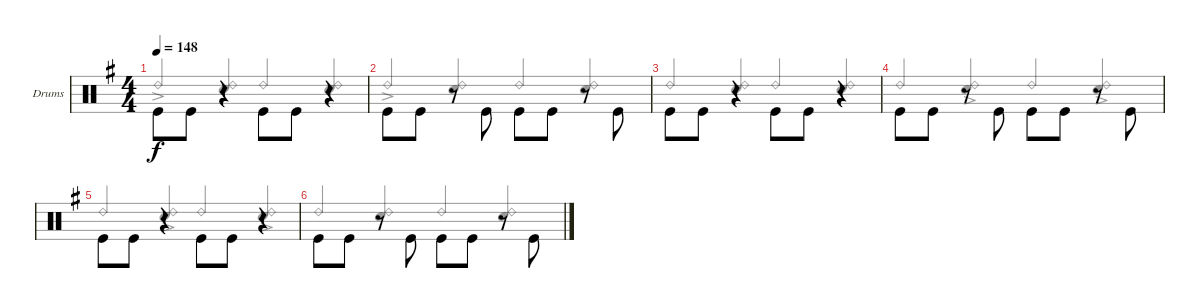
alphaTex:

\bracketExtendMode groupsimilarinstruments
\firstSystemTrackNameOrientation horizontal
\otherSystemsTrackNameOrientation horizontal
\track ("Drumkit" "Drums") {instrument percussion}
\staff {score}
\articulation defaults
\voice
\ts (4 4)
\tempo 148
\clef neutral
\scale
1.04288
\ks g "Kick (hit)".8{dy f beam invert} "Kick (hit)".8
r.4{beam invert} "Kick (hit)".8{beam invert} "Kick (hit)".8 r.4{beam invert} |
\scale
0.957125 "Kick (hit)".8{beam invert} "Kick (hit)".8 r.8{beam invert} "Kick (hit)".8{beam invert} "Kick (hit)".8{beam invert} "Kick (hit)".8 r.8{beam invert} "Kick (hit)".8{beam invert} |
\scale
1.04288 "Kick (hit)".8{beam invert} "Kick (hit)".8 r.4{beam invert} "Kick (hit)".8{beam invert} "Kick (hit)".8 r.4{beam invert} |
\scale
0.957125 "Kick (hit)".8{beam invert} "Kick (hit)".8 r.8{beam invert} "Kick (hit)".8{beam invert} "Kick (hit)".8{beam invert} "Kick (hit)".8 r.8{beam invert} "Kick (hit)".8{beam invert} |
\scale
1.04288 "Kick (hit)".8{beam invert} "Kick (hit)".8 r.4{beam invert} "Kick (hit)".8{beam invert} "Kick (hit)".8 r.4{beam invert} |
\scale
0.957125 "Kick (hit)".8{beam invert} "Kick (hit)".8 r.8{beam invert} "Kick (hit)".8{beam invert} "Kick (hit)".8{beam invert} "Kick (hit)".8 r.8{beam invert} "Kick (hit)".8{beam invert}
\voice
\clef neutral
\ottava regular
\simile none
\scale
1.04288
\ks g "Ride (bell) 2"{ac}.4{dy f beam invert}
("Snare (hit) 2" "Ride (bell) 2").4{beam invert} "Ride (bell) 2".4{beam invert} ("Snare (hit) 2" "Ride (bell) 2").4{beam invert} |
\scale
0.957125 "Ride (bell) 2"{ac}.4{beam invert} ("Snare (hit) 2" "Ride (bell) 2").4{beam invert} "Ride (bell) 2".4{beam invert} ("Snare (hit) 2" "Ride (bell) 2").4{beam invert} |
\scale
1.04288 "Ride (bell) 2".4{beam invert} ("Snare (hit) 2" "Ride (bell) 2").4{beam invert} "Ride (bell) 2".4{beam invert} ("Snare (hit) 2" "Ride (bell) 2").4{beam invert} |
\scale
0.957125 "Ride (bell) 2".4{beam invert} ("Snare (hit) 2"{ac} "Ride (bell) 2"{ac}).4{beam invert} "Ride (bell) 2".4{beam invert} ("Snare (hit) 2"{ac} "Ride (bell) 2"{ac}).4{beam invert} |
\scale
1.04288 "Ride (bell) 2".4{beam invert} ("Snare (hit) 2"{ac} "Ride (bell) 2"{ac}).4{beam invert} "Ride (bell) 2".4{beam invert} ("Snare (hit) 2"{ac} "Ride (bell) 2"{ac}).4{beam invert} |
\scale
0.957125 "Ride (bell) 2".4{beam invert} ("Snare (hit) 2" "Ride (bell) 2").4{beam invert} "Ride (bell) 2".4{beam invert} ("Snare (hit) 2" "Ride (bell) 2").4{beam invert}
